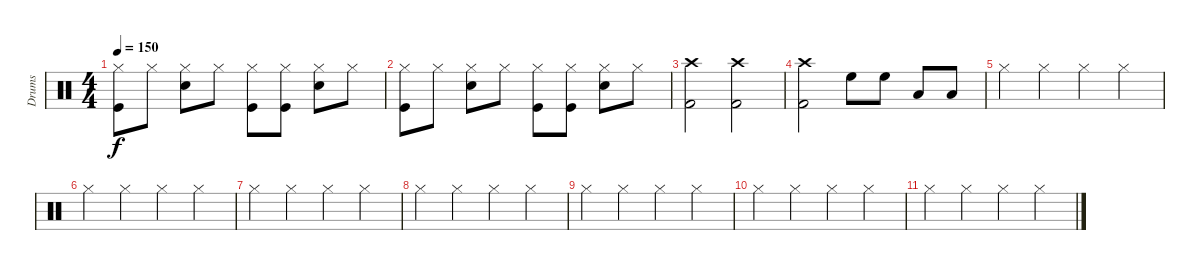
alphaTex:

\track ("Drums" "Drums") {instrument percussion}
\staff {score}
\articulation defaults
\ts (4 4)
\tempo 150
\clef neutral
\ks c
("Hi-Hat (closed)" "Kick (hit)").8{dy f} "Hi-Hat (closed)".8 ("Hi-Hat (closed)" "Snare (hit) 2").8 "Hi-Hat (closed)".8 ("Hi-Hat (closed)" "Kick (hit)").8 ("Hi-Hat (closed)" "Kick (hit)").8 ("Hi-Hat (closed)" "Snare (hit) 2").8 "Hi-Hat (closed)".8 |
("Hi-Hat (closed)" "Kick (hit)").8 "Hi-Hat (closed)".8 ("Hi-Hat (closed)" "Snare (hit) 2").8 "Hi-Hat (closed)".8 ("Hi-Hat (closed)" "Kick (hit)").8 ("Hi-Hat (closed)" "Kick (hit)").8 ("Hi-Hat (closed)" "Snare (hit) 2").8 "Hi-Hat (closed)".8 |
("Kick (hit) 2" "Crash high (hit)").2 ("Kick (hit) 2" "Crash high (hit)").2 |
("Kick (hit) 2" "Crash high (hit)").2 "High Floor Tom (hit)".8 "High Floor Tom (hit)".8 "Low Tom (hit)".8 "Low Tom (hit)".8 |
"Hi-Hat (closed)".4 "Hi-Hat (closed)".4 "Hi-Hat (closed)".4 "Hi-Hat (closed)".4 |
"Hi-Hat (closed)".4 "Hi-Hat (closed)".4 "Hi-Hat (closed)".4 "Hi-Hat (closed)".4 |
"Hi-Hat (closed)".4 "Hi-Hat (closed)".4 "Hi-Hat (closed)".4 "Hi-Hat (closed)".4 |
"Hi-Hat (closed)".4 "Hi-Hat (closed)".4 "Hi-Hat (closed)".4 "Hi-Hat (closed)".4 |
"Hi-Hat (closed)".4 "Hi-Hat (closed)".4 "Hi-Hat (closed)".4 "Hi-Hat (closed)".4 |
"Hi-Hat (closed)".4 "Hi-Hat (closed)".4 "Hi-Hat (closed)".4 "Hi-Hat (closed)".4 |
"Hi-Hat (closed)".4 "Hi-Hat (closed)".4 "Hi-Hat (closed)".4 "Hi-Hat (closed)".4
